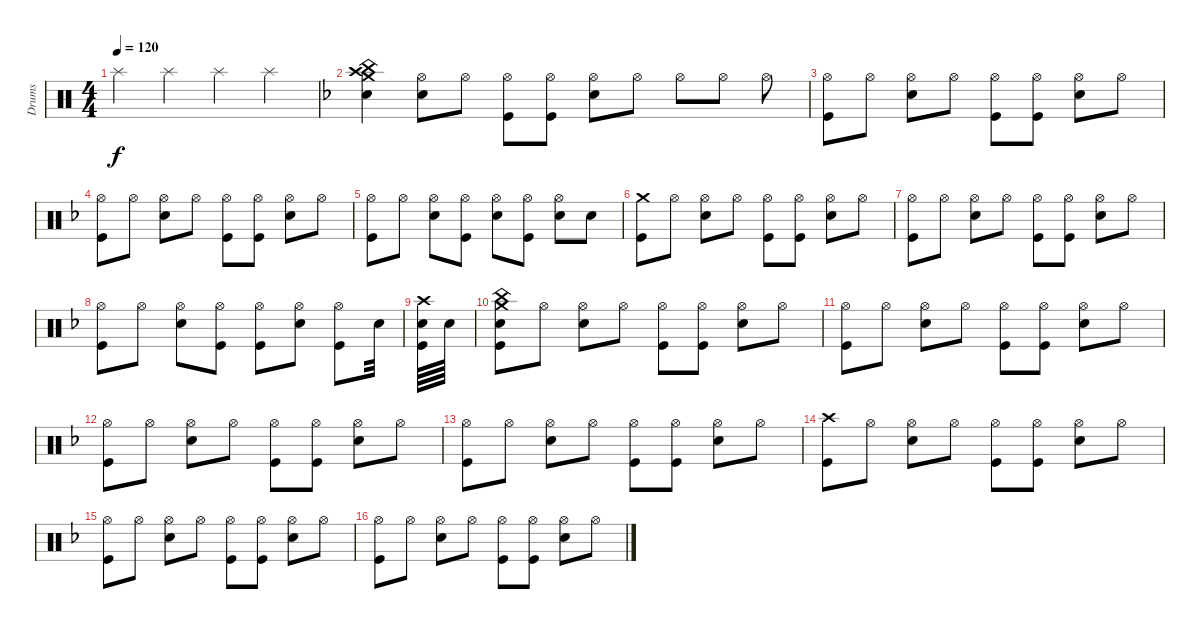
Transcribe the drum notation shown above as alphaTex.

\track ("Drums" "Drums") {instrument percussion}
\staff {score}
\articulation defaults
\ts (4 4)
\tempo 120
\clef neutral
\ks c "Splash (hit)".4{dy f} "Splash (hit)".4 "Splash (hit)".4 "Splash (hit)".4
|
\ks f
("Crash medium (hit)" "Crash high (hit)" "China (hit)" "Snare (hit) 2").4 ("Hi-Hat (open)" "Snare (hit) 2").8 "Hi-Hat (open)".8 ("Hi-Hat (open)" "Kick (hit)").8 ("Hi-Hat (open)" "Kick (hit)").8 ("Hi-Hat (open)" "Snare (hit) 2").8 "Hi-Hat (open)".8 "Hi-Hat (open)".8 "Hi-Hat (open)".8 "Hi-Hat (open)".8 |
("Hi-Hat (open)" "Kick (hit)").8 "Hi-Hat (open)".8 ("Hi-Hat (open)" "Snare (hit) 2").8 "Hi-Hat (open)".8 ("Hi-Hat (open)" "Kick (hit)").8 ("Hi-Hat (open)" "Kick (hit)").8 ("Hi-Hat (open)" "Snare (hit) 2").8 "Hi-Hat (open)".8 |
("Hi-Hat (open)" "Kick (hit)").8 "Hi-Hat (open)".8 ("Hi-Hat (open)" "Snare (hit) 2").8 "Hi-Hat (open)".8 ("Hi-Hat (open)" "Kick (hit)").8 ("Hi-Hat (open)" "Kick (hit)").8 ("Hi-Hat (open)" "Snare (hit) 2").8 "Hi-Hat (open)".8 |
("Hi-Hat (open)" "Kick (hit)").8 "Hi-Hat (open)".8 ("Hi-Hat (open)" "Snare (hit) 2").8 ("Hi-Hat (open)" "Kick (hit)").8 ("Hi-Hat (open)" "Snare (hit) 2").8 ("Hi-Hat (open)" "Kick (hit)").8 ("Hi-Hat (open)" "Snare (hit) 2").8 "Snare (hit) 2".8 |
("Crash medium (hit)" "Kick (hit)").8 "Hi-Hat (open)".8 ("Hi-Hat (open)" "Snare (hit) 2").8 "Hi-Hat (open)".8 ("Hi-Hat (open)" "Kick (hit)").8 ("Hi-Hat (open)" "Kick (hit)").8 ("Hi-Hat (open)" "Snare (hit) 2").8 "Hi-Hat (open)".8 |
("Hi-Hat (open)" "Kick (hit)").8 "Hi-Hat (open)".8 ("Hi-Hat (open)" "Snare (hit) 2").8 "Hi-Hat (open)".8 ("Hi-Hat (open)" "Kick (hit)").8 ("Hi-Hat (open)" "Kick (hit)").8 ("Hi-Hat (open)" "Snare (hit) 2").8 "Hi-Hat (open)".8 |
("Hi-Hat (open)" "Kick (hit)").8 "Hi-Hat (open)".8 ("Hi-Hat (open)" "Snare (hit) 2").8 ("Hi-Hat (open)" "Kick (hit)").8 ("Hi-Hat (open)" "Kick (hit)").8 ("Hi-Hat (open)" "Snare (hit) 2").8 ("Hi-Hat (open)" "Kick (hit)").8 "Snare (hit) 2".32 |
("Crash high (hit)" "Snare (hit) 2" "Kick (hit)").64 "Snare (hit) 2".64 |
("China (hit)" "Crash medium (hit)" "Snare (hit) 2" "Kick (hit)").8 "Hi-Hat (open)".8 ("Hi-Hat (open)" "Snare (hit) 2").8 "Hi-Hat (open)".8 ("Hi-Hat (open)" "Kick (hit)").8 ("Hi-Hat (open)" "Kick (hit)").8 ("Hi-Hat (open)" "Snare (hit) 2").8 "Hi-Hat (open)".8 |
("Hi-Hat (open)" "Kick (hit)").8 "Hi-Hat (open)".8 ("Hi-Hat (open)" "Snare (hit) 2").8 "Hi-Hat (open)".8 ("Hi-Hat (open)" "Kick (hit)").8 ("Hi-Hat (open)" "Kick (hit)").8 ("Hi-Hat (open)" "Snare (hit) 2").8 "Hi-Hat (open)".8 |
("Hi-Hat (open)" "Kick (hit)").8 "Hi-Hat (open)".8 ("Hi-Hat (open)" "Snare (hit) 2").8 "Hi-Hat (open)".8 ("Hi-Hat (open)" "Kick (hit)").8 ("Hi-Hat (open)" "Kick (hit)").8 ("Hi-Hat (open)" "Snare (hit) 2").8 "Hi-Hat (open)".8 |
("Hi-Hat (open)" "Kick (hit)").8 "Hi-Hat (open)".8 ("Hi-Hat (open)" "Snare (hit) 2").8 "Hi-Hat (open)".8 ("Hi-Hat (open)" "Kick (hit)").8 ("Hi-Hat (open)" "Kick (hit)").8 ("Hi-Hat (open)" "Snare (hit) 2").8 "Hi-Hat (open)".8 |
("Crash high (hit)" "Kick (hit)").8 "Hi-Hat (open)".8 ("Hi-Hat (open)" "Snare (hit) 2").8 "Hi-Hat (open)".8 ("Hi-Hat (open)" "Kick (hit)").8 ("Hi-Hat (open)" "Kick (hit)").8 ("Hi-Hat (open)" "Snare (hit) 2").8 "Hi-Hat (open)".8 |
("Hi-Hat (open)" "Kick (hit)").8 "Hi-Hat (open)".8 ("Hi-Hat (open)" "Snare (hit) 2").8 "Hi-Hat (open)".8 ("Hi-Hat (open)" "Kick (hit)").8 ("Hi-Hat (open)" "Kick (hit)").8 ("Hi-Hat (open)" "Snare (hit) 2").8 "Hi-Hat (open)".8 |
("Hi-Hat (open)" "Kick (hit)").8 "Hi-Hat (open)".8 ("Hi-Hat (open)" "Snare (hit) 2").8 "Hi-Hat (open)".8 ("Hi-Hat (open)" "Kick (hit)").8 ("Hi-Hat (open)" "Kick (hit)").8 ("Hi-Hat (open)" "Snare (hit) 2").8 "Hi-Hat (open)".8
